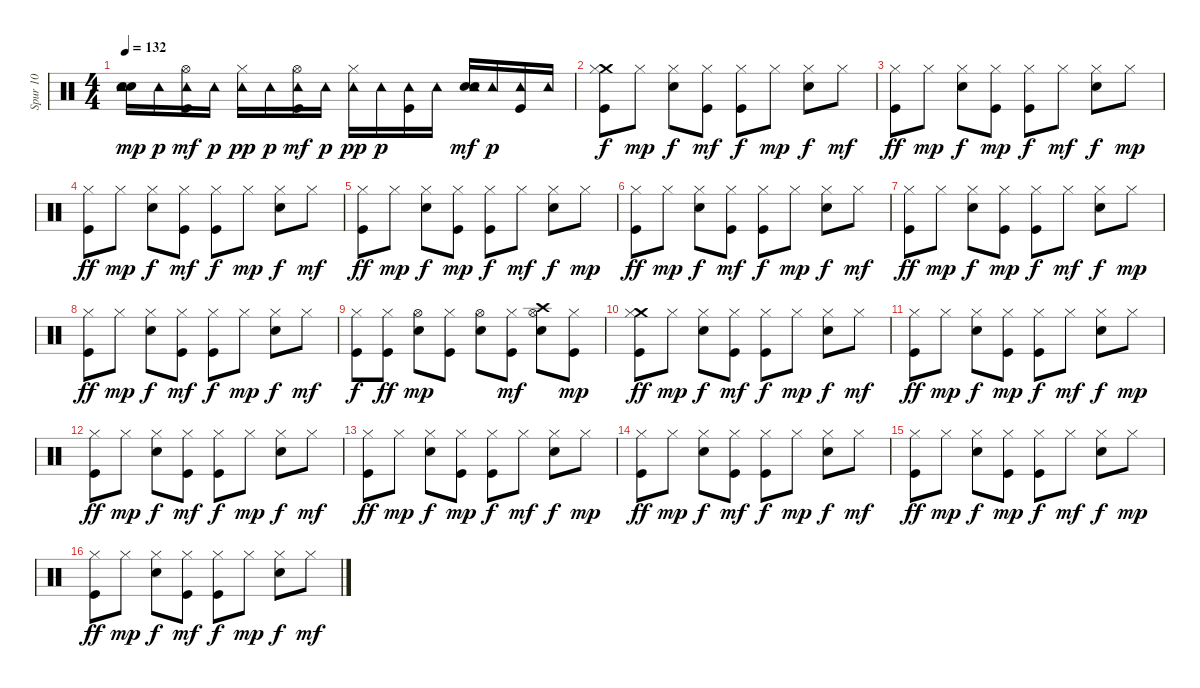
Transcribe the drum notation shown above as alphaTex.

\track ("Spur 10" "Spur 10") {instrument percussion}
\staff {score}
\articulation defaults
\ts (4 4)
\tempo 132
\clef neutral
\ks c
("Electric Snare (hit)" "Tambourine (hit)" "Electric Snare (hit)").16{dy mp} "Tambourine (hit)".16{dy p} ("Kick (hit)" "Tambourine (hit)" "Hi-Hat (open)").16{dy mf} "Tambourine (hit)".16{dy p} ("Tambourine (hit)" "Hi-Hat (closed)").16{dy pp} "Tambourine (hit)".16{dy p} ("Kick (hit)" "Tambourine (hit)" "Hi-Hat (open)").16{dy mf} "Tambourine (hit)".16{dy p} ("Tambourine (hit)" "Hi-Hat (closed)").16{dy pp} "Tambourine (hit)".16{dy p} ("Kick (hit)" "Tambourine (hit)").16 "Tambourine (hit)".16 ("Electric Snare (hit)" "Tambourine (hit)" "Electric Snare (hit)").16{dy mf} "Tambourine (hit)".16{dy p} ("Kick (hit)" "Tambourine (hit)").16 "Tambourine (hit)".16 |
("Crash medium (hit)" "Kick (hit)" "Hi-Hat (closed)").8{dy f} "Hi-Hat (closed)".8{dy mp} ("Hi-Hat (closed)" "Electric Snare (hit)").8{dy f} ("Hi-Hat (closed)" "Kick (hit)").8{dy mf} ("Hi-Hat (closed)" "Kick (hit)").8{dy f} "Hi-Hat (closed)".8{dy mp} ("Hi-Hat (closed)" "Electric Snare (hit)").8{dy f} "Hi-Hat (closed)".8{dy mf} |
("Hi-Hat (closed)" "Kick (hit)").8{dy ff} "Hi-Hat (closed)".8{dy mp} ("Hi-Hat (closed)" "Electric Snare (hit)").8{dy f} ("Hi-Hat (closed)" "Kick (hit)").8{dy mp} ("Hi-Hat (closed)" "Kick (hit)").8{dy f} "Hi-Hat (closed)".8{dy mf} ("Hi-Hat (closed)" "Electric Snare (hit)").8{dy f} "Hi-Hat (closed)".8{dy mp} |
("Kick (hit)" "Hi-Hat (closed)").8{dy ff} "Hi-Hat (closed)".8{dy mp} ("Electric Snare (hit)" "Hi-Hat (closed)").8{dy f} ("Kick (hit)" "Hi-Hat (closed)").8{dy mf} ("Kick (hit)" "Hi-Hat (closed)").8{dy f} "Hi-Hat (closed)".8{dy mp} ("Electric Snare (hit)" "Hi-Hat (closed)").8{dy f} "Hi-Hat (closed)".8{dy mf} |
("Kick (hit)" "Hi-Hat (closed)").8{dy ff} "Hi-Hat (closed)".8{dy mp} ("Electric Snare (hit)" "Hi-Hat (closed)").8{dy f} ("Kick (hit)" "Hi-Hat (closed)").8{dy mp} ("Kick (hit)" "Hi-Hat (closed)").8{dy f} "Hi-Hat (closed)".8{dy mf} ("Electric Snare (hit)" "Hi-Hat (closed)").8{dy f} "Hi-Hat (closed)".8{dy mp} |
("Kick (hit)" "Hi-Hat (closed)").8{dy ff} "Hi-Hat (closed)".8{dy mp} ("Electric Snare (hit)" "Hi-Hat (closed)").8{dy f} ("Kick (hit)" "Hi-Hat (closed)").8{dy mf} ("Kick (hit)" "Hi-Hat (closed)").8{dy f} "Hi-Hat (closed)".8{dy mp} ("Electric Snare (hit)" "Hi-Hat (closed)").8{dy f} "Hi-Hat (closed)".8{dy mf} |
("Kick (hit)" "Hi-Hat (closed)").8{dy ff} "Hi-Hat (closed)".8{dy mp} ("Electric Snare (hit)" "Hi-Hat (closed)").8{dy f} ("Kick (hit)" "Hi-Hat (closed)").8{dy mp} ("Kick (hit)" "Hi-Hat (closed)").8{dy f} "Hi-Hat (closed)".8{dy mf} ("Electric Snare (hit)" "Hi-Hat (closed)").8{dy f} "Hi-Hat (closed)".8{dy mp} |
("Kick (hit)" "Hi-Hat (closed)").8{dy ff} "Hi-Hat (closed)".8{dy mp} ("Electric Snare (hit)" "Hi-Hat (closed)").8{dy f} ("Kick (hit)" "Hi-Hat (closed)").8{dy mf} ("Kick (hit)" "Hi-Hat (closed)").8{dy f} "Hi-Hat (closed)".8{dy mp} ("Electric Snare (hit)" "Hi-Hat (closed)").8{dy f} "Hi-Hat (closed)".8{dy mf} |
("Hi-Hat (closed)" "Kick (hit)").8{dy f} ("Hi-Hat (closed)" "Kick (hit)").8{dy ff} ("Electric Snare (hit)" "Hi-Hat (open)").8{dy mp} ("Kick (hit)" "Hi-Hat (closed)").8 ("Electric Snare (hit)" "Hi-Hat (open)").8 ("Hi-Hat (closed)" "Kick (hit)").8{dy mf} ("Electric Snare (hit)" "Crash high (hit)" "Hi-Hat (open)").8 ("Hi-Hat (closed)" "Kick (hit)").8{dy mp} |
("Crash medium (hit)" "Kick (hit)" "Hi-Hat (closed)").8{dy ff} "Hi-Hat (closed)".8{dy mp} ("Electric Snare (hit)" "Hi-Hat (closed)").8{dy f} ("Kick (hit)" "Hi-Hat (closed)").8{dy mf} ("Kick (hit)" "Hi-Hat (closed)").8{dy f} "Hi-Hat (closed)".8{dy mp} ("Electric Snare (hit)" "Hi-Hat (closed)").8{dy f} "Hi-Hat (closed)".8{dy mf} |
("Hi-Hat (closed)" "Kick (hit)").8{dy ff} "Hi-Hat (closed)".8{dy mp} ("Hi-Hat (closed)" "Electric Snare (hit)").8{dy f} ("Kick (hit)" "Hi-Hat (closed)").8{dy mp} ("Hi-Hat (closed)" "Kick (hit)").8{dy f} "Hi-Hat (closed)".8{dy mf} ("Electric Snare (hit)" "Hi-Hat (closed)").8{dy f} "Hi-Hat (closed)".8{dy mp} |
("Kick (hit)" "Hi-Hat (closed)").8{dy ff} "Hi-Hat (closed)".8{dy mp} ("Electric Snare (hit)" "Hi-Hat (closed)").8{dy f} ("Kick (hit)" "Hi-Hat (closed)").8{dy mf} ("Kick (hit)" "Hi-Hat (closed)").8{dy f} "Hi-Hat (closed)".8{dy mp} ("Electric Snare (hit)" "Hi-Hat (closed)").8{dy f} "Hi-Hat (closed)".8{dy mf} |
("Kick (hit)" "Hi-Hat (closed)").8{dy ff} "Hi-Hat (closed)".8{dy mp} ("Electric Snare (hit)" "Hi-Hat (closed)").8{dy f} ("Kick (hit)" "Hi-Hat (closed)").8{dy mp} ("Kick (hit)" "Hi-Hat (closed)").8{dy f} "Hi-Hat (closed)".8{dy mf} ("Electric Snare (hit)" "Hi-Hat (closed)").8{dy f} "Hi-Hat (closed)".8{dy mp} |
("Kick (hit)" "Hi-Hat (closed)").8{dy ff} "Hi-Hat (closed)".8{dy mp} ("Electric Snare (hit)" "Hi-Hat (closed)").8{dy f} ("Kick (hit)" "Hi-Hat (closed)").8{dy mf} ("Kick (hit)" "Hi-Hat (closed)").8{dy f} "Hi-Hat (closed)".8{dy mp} ("Electric Snare (hit)" "Hi-Hat (closed)").8{dy f} "Hi-Hat (closed)".8{dy mf} |
("Kick (hit)" "Hi-Hat (closed)").8{dy ff} "Hi-Hat (closed)".8{dy mp} ("Electric Snare (hit)" "Hi-Hat (closed)").8{dy f} ("Kick (hit)" "Hi-Hat (closed)").8{dy mp} ("Kick (hit)" "Hi-Hat (closed)").8{dy f} "Hi-Hat (closed)".8{dy mf} ("Electric Snare (hit)" "Hi-Hat (closed)").8{dy f} "Hi-Hat (closed)".8{dy mp} |
("Kick (hit)" "Hi-Hat (closed)").8{dy ff} "Hi-Hat (closed)".8{dy mp} ("Electric Snare (hit)" "Hi-Hat (closed)").8{dy f} ("Kick (hit)" "Hi-Hat (closed)").8{dy mf} ("Kick (hit)" "Hi-Hat (closed)").8{dy f} "Hi-Hat (closed)".8{dy mp} ("Electric Snare (hit)" "Hi-Hat (closed)").8{dy f} "Hi-Hat (closed)".8{dy mf}
